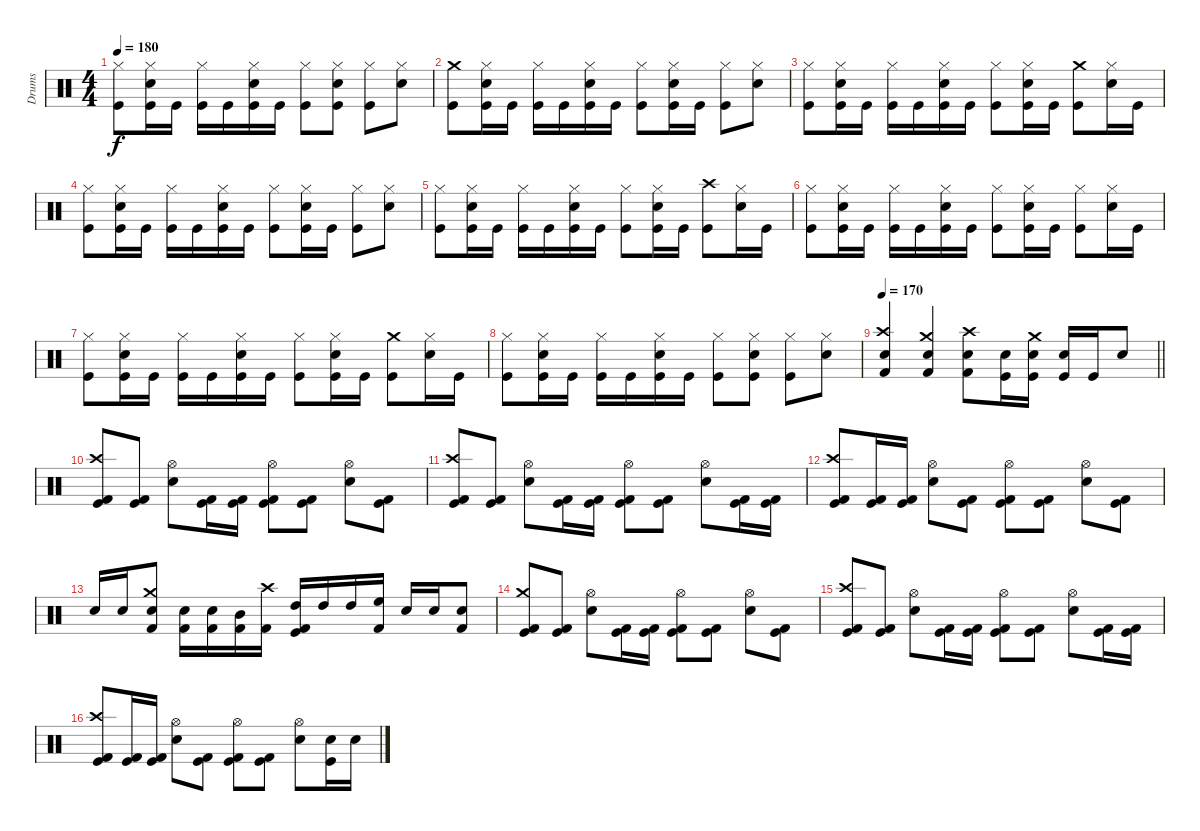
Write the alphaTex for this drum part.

\track ("Drums" "Drums") {instrument percussion}
\staff {score}
\articulation defaults
\ts (4 4)
\tempo 180
\clef neutral
\ks c
("Hi-Hat (closed)" "Kick (hit)").8{dy f} ("Hi-Hat (closed)" "Snare (hit) 2" "Kick (hit)").16 "Kick (hit)".16 ("Hi-Hat (closed)" "Kick (hit)").16 "Kick (hit)".16 ("Hi-Hat (closed)" "Snare (hit) 2" "Kick (hit)").16 "Kick (hit)".16 ("Hi-Hat (closed)" "Kick (hit)").8 ("Hi-Hat (closed)" "Snare (hit) 2" "Kick (hit)").8 ("Hi-Hat (closed)" "Kick (hit)").8 ("Hi-Hat (closed)" "Snare (hit) 2").8 |
("Crash medium (hit)" "Kick (hit)").8 ("Hi-Hat (closed)" "Snare (hit) 2" "Kick (hit)").16 "Kick (hit)".16 ("Hi-Hat (closed)" "Kick (hit)").16 "Kick (hit)".16 ("Hi-Hat (closed)" "Snare (hit) 2" "Kick (hit)").16 "Kick (hit)".16 ("Hi-Hat (closed)" "Kick (hit)").8 ("Hi-Hat (closed)" "Snare (hit) 2" "Kick (hit)").16 "Kick (hit)".16 ("Hi-Hat (closed)" "Kick (hit)").8 ("Hi-Hat (closed)" "Snare (hit) 2").8 |
("Hi-Hat (closed)" "Kick (hit)").8 ("Hi-Hat (closed)" "Snare (hit) 2" "Kick (hit)").16 "Kick (hit)".16 ("Hi-Hat (closed)" "Kick (hit)").16 "Kick (hit)".16 ("Hi-Hat (closed)" "Snare (hit) 2" "Kick (hit)").16 "Kick (hit)".16 ("Hi-Hat (closed)" "Kick (hit)").8 ("Hi-Hat (closed)" "Snare (hit) 2" "Kick (hit)").16 "Kick (hit)".16 ("Crash medium (hit)" "Kick (hit)").8 ("Hi-Hat (closed)" "Snare (hit) 2").16 "Kick (hit)".16 |
("Hi-Hat (closed)" "Kick (hit)").8 ("Hi-Hat (closed)" "Snare (hit) 2" "Kick (hit)").16 "Kick (hit)".16 ("Hi-Hat (closed)" "Kick (hit)").16 "Kick (hit)".16 ("Hi-Hat (closed)" "Snare (hit) 2" "Kick (hit)").16 "Kick (hit)".16 ("Hi-Hat (closed)" "Kick (hit)").8 ("Hi-Hat (closed)" "Snare (hit) 2" "Kick (hit)").16 "Kick (hit)".16 ("Hi-Hat (closed)" "Kick (hit)").8 ("Hi-Hat (closed)" "Snare (hit) 2").8 |
("Hi-Hat (closed)" "Kick (hit)").8 ("Hi-Hat (closed)" "Snare (hit) 2" "Kick (hit)").16 "Kick (hit)".16 ("Hi-Hat (closed)" "Kick (hit)").16 "Kick (hit)".16 ("Hi-Hat (closed)" "Snare (hit) 2" "Kick (hit)").16 "Kick (hit)".16 ("Hi-Hat (closed)" "Kick (hit)").8 ("Hi-Hat (closed)" "Snare (hit) 2" "Kick (hit)").16 "Kick (hit)".16 ("Crash high (hit)" "Kick (hit)").8 ("Hi-Hat (closed)" "Snare (hit) 2").16 "Kick (hit)".16 |
("Hi-Hat (closed)" "Kick (hit)").8 ("Hi-Hat (closed)" "Snare (hit) 2" "Kick (hit)").16 "Kick (hit)".16 ("Hi-Hat (closed)" "Kick (hit)").16 "Kick (hit)".16 ("Hi-Hat (closed)" "Snare (hit) 2" "Kick (hit)").16 "Kick (hit)".16 ("Hi-Hat (closed)" "Kick (hit)").8 ("Hi-Hat (closed)" "Snare (hit) 2" "Kick (hit)").16 "Kick (hit)".16 ("Hi-Hat (closed)" "Kick (hit)").8 ("Hi-Hat (closed)" "Snare (hit) 2").16 "Kick (hit)".16 |
("Hi-Hat (closed)" "Kick (hit)").8 ("Hi-Hat (closed)" "Snare (hit) 2" "Kick (hit)").16 "Kick (hit)".16 ("Hi-Hat (closed)" "Kick (hit)").16 "Kick (hit)".16 ("Hi-Hat (closed)" "Snare (hit) 2" "Kick (hit)").16 "Kick (hit)".16 ("Hi-Hat (closed)" "Kick (hit)").8 ("Hi-Hat (closed)" "Snare (hit) 2" "Kick (hit)").16 "Kick (hit)".16 ("Crash medium (hit)" "Kick (hit)").8 ("Hi-Hat (closed)" "Snare (hit) 2").16 "Kick (hit)".16 |
("Hi-Hat (closed)" "Kick (hit)").8 ("Hi-Hat (closed)" "Snare (hit) 2" "Kick (hit)").16 "Kick (hit)".16 ("Hi-Hat (closed)" "Kick (hit)").16 "Kick (hit)".16 ("Hi-Hat (closed)" "Snare (hit) 2" "Kick (hit)").16 "Kick (hit)".16 ("Hi-Hat (closed)" "Kick (hit)").8 ("Hi-Hat (closed)" "Snare (hit) 2" "Kick (hit)").8 ("Hi-Hat (closed)" "Kick (hit)").8 ("Hi-Hat (closed)" "Snare (hit) 2").8 |
\tempo 170
\barLineRight lightlight
("Crash high (hit)" "Snare (hit) 2" "Kick (hit) 2").4 ("Crash medium (hit)" "Snare (hit) 2" "Kick (hit) 2").4 ("Crash high (hit)" "Snare (hit) 2" "Kick (hit) 2").8 ("Snare (hit) 2" "Kick (hit)").16 ("Crash medium (hit)" "Snare (hit) 2" "Kick (hit)").16 ("Snare (hit) 2" "Kick (hit)").16 "Kick (hit)".16 "Snare (hit) 2".8 |
("Crash high (hit)" "Kick (hit) 2" "Kick (hit)").8 ("Kick (hit) 2" "Kick (hit)").8 ("Hi-Hat (open)" "Snare (hit) 2").8 ("Kick (hit) 2" "Kick (hit)").16 ("Kick (hit) 2" "Kick (hit)").16 ("Hi-Hat (open)" "Kick (hit) 2" "Kick (hit)").8 ("Kick (hit) 2" "Kick (hit)").8 ("Hi-Hat (open)" "Snare (hit) 2").8 ("Kick (hit) 2" "Kick (hit)").8 |
("Crash high (hit)" "Kick (hit) 2" "Kick (hit)").8 ("Kick (hit) 2" "Kick (hit)").8 ("Hi-Hat (open)" "Snare (hit) 2").8 ("Kick (hit) 2" "Kick (hit)").16 ("Kick (hit) 2" "Kick (hit)").16 ("Hi-Hat (open)" "Kick (hit) 2" "Kick (hit)").8 ("Kick (hit) 2" "Kick (hit)").8 ("Hi-Hat (open)" "Snare (hit) 2").8 ("Kick (hit) 2" "Kick (hit)").16 ("Kick (hit) 2" "Kick (hit)").16 |
("Crash high (hit)" "Kick (hit) 2" "Kick (hit)").8 ("Kick (hit) 2" "Kick (hit)").16 ("Kick (hit) 2" "Kick (hit)").16 ("Hi-Hat (open)" "Snare (hit) 2").8 ("Kick (hit) 2" "Kick (hit)").8 ("Hi-Hat (open)" "Kick (hit) 2" "Kick (hit)").8 ("Kick (hit) 2" "Kick (hit)").8 ("Hi-Hat (open)" "Snare (hit) 2").8 ("Kick (hit) 2" "Kick (hit)").8 |
"Snare (hit) 2".16 "Snare (hit) 2".16 ("Crash medium (hit)" "Snare (hit) 2" "Kick (hit) 2").8 ("Snare (hit) 2" "Kick (hit) 2").16 ("Snare (hit) 2" "Kick (hit) 2").16 ("Mid Tom (hit)" "Kick (hit) 2").16 ("Crash high (hit)" "Kick (hit) 2").16 ("High Tom (hit)" "Kick (hit)" "Kick (hit) 2").16 "High Tom (hit)".16 "High Tom (hit)".16 ("High Floor Tom (hit)" "Kick (hit) 2").16 "Snare (hit) 2".16 "Snare (hit) 2".16 ("Snare (hit) 2" "Kick (hit) 2").8 |
("Crash medium (hit)" "Kick (hit) 2" "Kick (hit)").8 ("Kick (hit) 2" "Kick (hit)").8 ("Hi-Hat (open)" "Snare (hit) 2").8 ("Kick (hit) 2" "Kick (hit)").16 ("Kick (hit) 2" "Kick (hit)").16 ("Hi-Hat (open)" "Kick (hit) 2" "Kick (hit)").8 ("Kick (hit) 2" "Kick (hit)").8 ("Hi-Hat (open)" "Snare (hit) 2").8 ("Kick (hit) 2" "Kick (hit)").8 |
("Crash high (hit)" "Kick (hit) 2" "Kick (hit)").8 ("Kick (hit) 2" "Kick (hit)").8 ("Hi-Hat (open)" "Snare (hit) 2").8 ("Kick (hit) 2" "Kick (hit)").16 ("Kick (hit) 2" "Kick (hit)").16 ("Hi-Hat (open)" "Kick (hit) 2" "Kick (hit)").8 ("Kick (hit) 2" "Kick (hit)").8 ("Hi-Hat (open)" "Snare (hit) 2").8 ("Kick (hit) 2" "Kick (hit)").16 ("Kick (hit) 2" "Kick (hit)").16 |
("Crash high (hit)" "Kick (hit) 2" "Kick (hit)").8 ("Kick (hit) 2" "Kick (hit)").16 ("Kick (hit) 2" "Kick (hit)").16 ("Hi-Hat (open)" "Snare (hit) 2").8 ("Kick (hit) 2" "Kick (hit)").8 ("Hi-Hat (open)" "Kick (hit) 2" "Kick (hit)").8 ("Kick (hit) 2" "Kick (hit)").8 ("Hi-Hat (open)" "Snare (hit) 2").8 ("Snare (hit) 2" "Kick (hit)").16 "Snare (hit) 2".16
